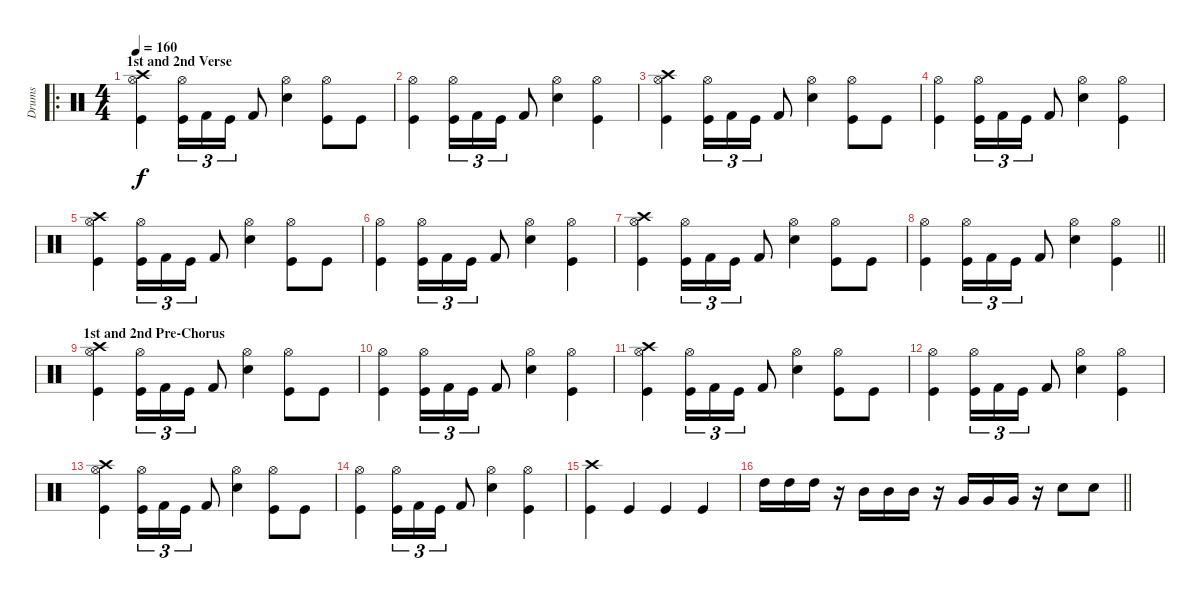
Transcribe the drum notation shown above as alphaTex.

\track ("Drums" "Drums") {instrument percussion}
\staff {score}
\articulation defaults
\ro
\ts (4 4)
\section ("" "1st and 2nd Verse")
\tempo 160
\clef neutral
\ks c
("Crash high (hit)" "Hi-Hat (open)" "Kick (hit)").4{dy f} ("Hi-Hat (open)" "Kick (hit)").16{tu (3 2)} "Kick (hit) 2".16{tu (3 2)} "Kick (hit)".16{tu (3 2)} "Kick (hit) 2".8 ("Hi-Hat (open)" "Snare (hit) 2").4 ("Hi-Hat (open)" "Kick (hit)").8 "Kick (hit)".8 |
("Hi-Hat (open)" "Kick (hit)").4 ("Hi-Hat (open)" "Kick (hit)").16{tu (3 2)} "Kick (hit) 2".16{tu (3 2)} "Kick (hit)".16{tu (3 2)} "Kick (hit) 2".8 ("Hi-Hat (open)" "Snare (hit) 2").4 ("Hi-Hat (open)" "Kick (hit)").4 |
("Crash high (hit)" "Hi-Hat (open)" "Kick (hit)").4 ("Hi-Hat (open)" "Kick (hit)").16{tu (3 2)} "Kick (hit) 2".16{tu (3 2)} "Kick (hit)".16{tu (3 2)} "Kick (hit) 2".8 ("Hi-Hat (open)" "Snare (hit) 2").4 ("Hi-Hat (open)" "Kick (hit)").8 "Kick (hit)".8 |
("Hi-Hat (open)" "Kick (hit)").4 ("Hi-Hat (open)" "Kick (hit)").16{tu (3 2)} "Kick (hit) 2".16{tu (3 2)} "Kick (hit)".16{tu (3 2)} "Kick (hit) 2".8 ("Hi-Hat (open)" "Snare (hit) 2").4 ("Hi-Hat (open)" "Kick (hit)").4 |
("Crash high (hit)" "Hi-Hat (open)" "Kick (hit)").4 ("Hi-Hat (open)" "Kick (hit)").16{tu (3 2)} "Kick (hit) 2".16{tu (3 2)} "Kick (hit)".16{tu (3 2)} "Kick (hit) 2".8 ("Hi-Hat (open)" "Snare (hit) 2").4 ("Hi-Hat (open)" "Kick (hit)").8 "Kick (hit)".8 |
("Hi-Hat (open)" "Kick (hit)").4 ("Hi-Hat (open)" "Kick (hit)").16{tu (3 2)} "Kick (hit) 2".16{tu (3 2)} "Kick (hit)".16{tu (3 2)} "Kick (hit) 2".8 ("Hi-Hat (open)" "Snare (hit) 2").4 ("Hi-Hat (open)" "Kick (hit)").4 |
("Crash high (hit)" "Hi-Hat (open)" "Kick (hit)").4 ("Hi-Hat (open)" "Kick (hit)").16{tu (3 2)} "Kick (hit) 2".16{tu (3 2)} "Kick (hit)".16{tu (3 2)} "Kick (hit) 2".8 ("Hi-Hat (open)" "Snare (hit) 2").4 ("Hi-Hat (open)" "Kick (hit)").8 "Kick (hit)".8 |
\barLineRight lightlight
("Hi-Hat (open)" "Kick (hit)").4 ("Hi-Hat (open)" "Kick (hit)").16{tu (3 2)} "Kick (hit) 2".16{tu (3 2)} "Kick (hit)".16{tu (3 2)} "Kick (hit) 2".8 ("Hi-Hat (open)" "Snare (hit) 2").4 ("Hi-Hat (open)" "Kick (hit)").4 |
\section ("" "1st and 2nd Pre-Chorus")
("Crash high (hit)" "Hi-Hat (open)" "Kick (hit)").4 ("Hi-Hat (open)" "Kick (hit)").16{tu (3 2)} "Kick (hit) 2".16{tu (3 2)} "Kick (hit)".16{tu (3 2)} "Kick (hit) 2".8 ("Hi-Hat (open)" "Snare (hit) 2").4 ("Hi-Hat (open)" "Kick (hit)").8 "Kick (hit)".8 |
("Hi-Hat (open)" "Kick (hit)").4 ("Hi-Hat (open)" "Kick (hit)").16{tu (3 2)} "Kick (hit) 2".16{tu (3 2)} "Kick (hit)".16{tu (3 2)} "Kick (hit) 2".8 ("Hi-Hat (open)" "Snare (hit) 2").4 ("Hi-Hat (open)" "Kick (hit)").4 |
("Crash high (hit)" "Hi-Hat (open)" "Kick (hit)").4 ("Hi-Hat (open)" "Kick (hit)").16{tu (3 2)} "Kick (hit) 2".16{tu (3 2)} "Kick (hit)".16{tu (3 2)} "Kick (hit) 2".8 ("Hi-Hat (open)" "Snare (hit) 2").4 ("Hi-Hat (open)" "Kick (hit)").8 "Kick (hit)".8 |
("Hi-Hat (open)" "Kick (hit)").4 ("Hi-Hat (open)" "Kick (hit)").16{tu (3 2)} "Kick (hit) 2".16{tu (3 2)} "Kick (hit)".16{tu (3 2)} "Kick (hit) 2".8 ("Hi-Hat (open)" "Snare (hit) 2").4 ("Hi-Hat (open)" "Kick (hit)").4 |
("Crash high (hit)" "Hi-Hat (open)" "Kick (hit)").4 ("Hi-Hat (open)" "Kick (hit)").16{tu (3 2)} "Kick (hit) 2".16{tu (3 2)} "Kick (hit)".16{tu (3 2)} "Kick (hit) 2".8 ("Hi-Hat (open)" "Snare (hit) 2").4 ("Hi-Hat (open)" "Kick (hit)").8 "Kick (hit)".8 |
("Hi-Hat (open)" "Kick (hit)").4 ("Hi-Hat (open)" "Kick (hit)").16{tu (3 2)} "Kick (hit) 2".16{tu (3 2)} "Kick (hit)".16{tu (3 2)} "Kick (hit) 2".8 ("Hi-Hat (open)" "Snare (hit) 2").4 ("Hi-Hat (open)" "Kick (hit)").4 |
("Crash high (hit)" "Kick (hit)").4 "Kick (hit)".4 "Kick (hit)".4 "Kick (hit)".4 |
\barLineRight lightlight "High Tom (hit)".16 "High Tom (hit)".16 "High Tom (hit)".16
r.16 "Mid Tom (hit)".16 "Mid Tom (hit)".16 "Mid Tom (hit)".16 r.16 "Very Low Tom (hit)".16 "Very Low Tom (hit)".16 "Very Low Tom (hit)".16 r.16 "Snare (hit) 2".8 "Snare (hit) 2".8
